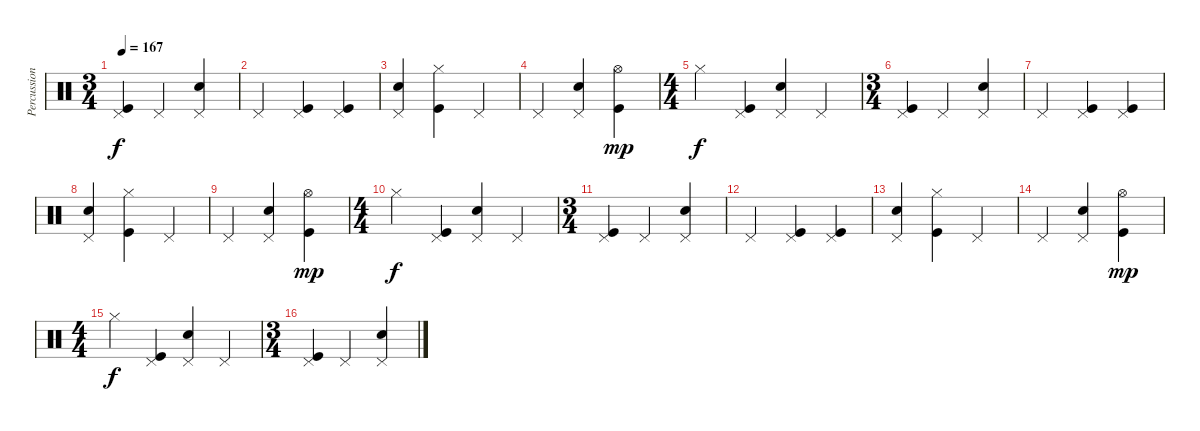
\track ("Percussion" "Percussion") {instrument percussion}
\staff {score}
\articulation defaults
\ts (3 4)
\tempo 167
\clef neutral
\ks c
("Pedal Hi-Hat (hit)" "Kick (hit)").4{dy f} "Pedal Hi-Hat (hit)".4 ("Pedal Hi-Hat (hit)" "Snare (hit) 2").4 |
"Pedal Hi-Hat (hit)".4 ("Pedal Hi-Hat (hit)" "Kick (hit)").4 ("Pedal Hi-Hat (hit)" "Kick (hit)").4 |
("Pedal Hi-Hat (hit)" "Snare (hit) 2").4 ("Hi-Hat (closed)" "Kick (hit)").4 "Pedal Hi-Hat (hit)".4 |
"Pedal Hi-Hat (hit)".4 ("Pedal Hi-Hat (hit)" "Snare (hit) 2").4 ("Hi-Hat (open)" "Kick (hit)").4{dy mp} |
\ts (4 4)
"Hi-Hat (closed)".4{dy f} ("Pedal Hi-Hat (hit)" "Kick (hit)").4 ("Pedal Hi-Hat (hit)" "Snare (hit) 2").4 "Pedal Hi-Hat (hit)".4 |
\ts (3 4)
("Pedal Hi-Hat (hit)" "Kick (hit)").4 "Pedal Hi-Hat (hit)".4 ("Pedal Hi-Hat (hit)" "Snare (hit) 2").4 |
"Pedal Hi-Hat (hit)".4 ("Pedal Hi-Hat (hit)" "Kick (hit)").4 ("Pedal Hi-Hat (hit)" "Kick (hit)").4 |
("Pedal Hi-Hat (hit)" "Snare (hit) 2").4 ("Hi-Hat (closed)" "Kick (hit)").4 "Pedal Hi-Hat (hit)".4 |
"Pedal Hi-Hat (hit)".4 ("Pedal Hi-Hat (hit)" "Snare (hit) 2").4 ("Hi-Hat (open)" "Kick (hit)").4{dy mp} |
\ts (4 4)
"Hi-Hat (closed)".4{dy f} ("Pedal Hi-Hat (hit)" "Kick (hit)").4 ("Pedal Hi-Hat (hit)" "Snare (hit) 2").4 "Pedal Hi-Hat (hit)".4 |
\ts (3 4)
("Pedal Hi-Hat (hit)" "Kick (hit)").4 "Pedal Hi-Hat (hit)".4 ("Pedal Hi-Hat (hit)" "Snare (hit) 2").4 |
"Pedal Hi-Hat (hit)".4 ("Pedal Hi-Hat (hit)" "Kick (hit)").4 ("Pedal Hi-Hat (hit)" "Kick (hit)").4 |
("Pedal Hi-Hat (hit)" "Snare (hit) 2").4 ("Hi-Hat (closed)" "Kick (hit)").4 "Pedal Hi-Hat (hit)".4 |
"Pedal Hi-Hat (hit)".4 ("Pedal Hi-Hat (hit)" "Snare (hit) 2").4 ("Hi-Hat (open)" "Kick (hit)").4{dy mp} |
\ts (4 4)
"Hi-Hat (closed)".4{dy f} ("Pedal Hi-Hat (hit)" "Kick (hit)").4 ("Pedal Hi-Hat (hit)" "Snare (hit) 2").4 "Pedal Hi-Hat (hit)".4 |
\ts (3 4)
("Pedal Hi-Hat (hit)" "Kick (hit)").4 "Pedal Hi-Hat (hit)".4 ("Pedal Hi-Hat (hit)" "Snare (hit) 2").4
